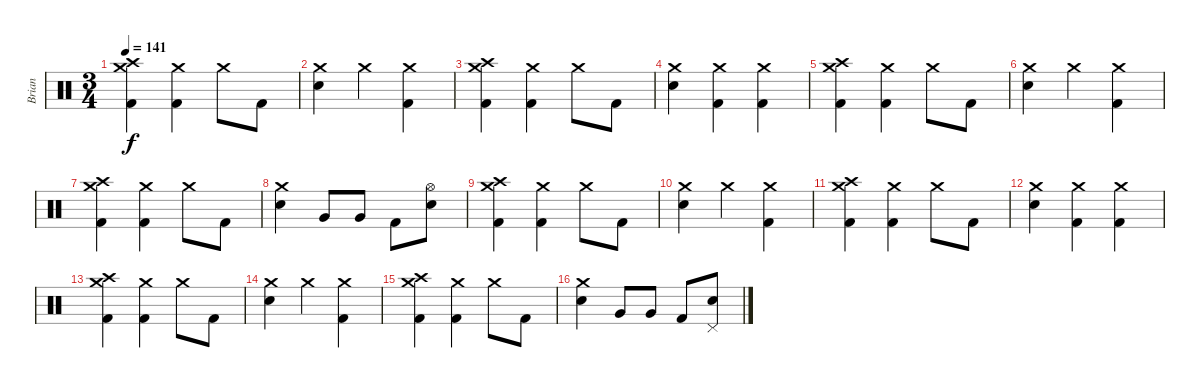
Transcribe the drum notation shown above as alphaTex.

\track ("Brian" "Brian") {instrument percussion}
\staff {score}
\articulation defaults
\ts (3 4)
\tempo 141
\clef neutral
\ks c
("Crash high (hit)" "Crash medium (hit)" "Kick (hit) 2").4{dy f} ("Crash medium (hit)" "Kick (hit) 2").4 "Crash medium (hit)".8 "Kick (hit) 2".8 |
("Crash medium (hit)" "Electric Snare (hit)").4 "Crash medium (hit)".4 ("Crash medium (hit)" "Kick (hit) 2").4 |
("Crash high (hit)" "Crash medium (hit)" "Kick (hit) 2").4 ("Crash medium (hit)" "Kick (hit) 2").4 "Crash medium (hit)".8 "Kick (hit) 2".8 |
("Crash medium (hit)" "Electric Snare (hit)").4 ("Crash medium (hit)" "Kick (hit) 2").4 ("Crash medium (hit)" "Kick (hit) 2").4 |
("Crash high (hit)" "Crash medium (hit)" "Kick (hit) 2").4 ("Crash medium (hit)" "Kick (hit) 2").4 "Crash medium (hit)".8 "Kick (hit) 2".8 |
("Crash medium (hit)" "Electric Snare (hit)").4 "Crash medium (hit)".4 ("Crash medium (hit)" "Kick (hit) 2").4 |
("Crash high (hit)" "Crash medium (hit)" "Kick (hit) 2").4 ("Crash medium (hit)" "Kick (hit) 2").4 "Crash medium (hit)".8 "Kick (hit) 2".8 |
("Crash medium (hit)" "Electric Snare (hit)").4 "Very Low Tom (hit)".8 "Very Low Tom (hit)".8 "Kick (hit) 2".8 ("Hi-Hat (open)" "Electric Snare (hit)").8 |
("Crash high (hit)" "Crash medium (hit)" "Kick (hit) 2").4 ("Crash medium (hit)" "Kick (hit) 2").4 "Crash medium (hit)".8 "Kick (hit) 2".8 |
("Crash medium (hit)" "Electric Snare (hit)").4 "Crash medium (hit)".4 ("Crash medium (hit)" "Kick (hit) 2").4 |
("Crash high (hit)" "Crash medium (hit)" "Kick (hit) 2").4 ("Crash medium (hit)" "Kick (hit) 2").4 "Crash medium (hit)".8 "Kick (hit) 2".8 |
("Crash medium (hit)" "Electric Snare (hit)").4 ("Crash medium (hit)" "Kick (hit) 2").4 ("Crash medium (hit)" "Kick (hit) 2").4 |
("Crash high (hit)" "Crash medium (hit)" "Kick (hit) 2").4 ("Crash medium (hit)" "Kick (hit) 2").4 "Crash medium (hit)".8 "Kick (hit) 2".8 |
("Crash medium (hit)" "Electric Snare (hit)").4 "Crash medium (hit)".4 ("Crash medium (hit)" "Kick (hit) 2").4 |
("Crash high (hit)" "Crash medium (hit)" "Kick (hit) 2").4 ("Crash medium (hit)" "Kick (hit) 2").4 "Crash medium (hit)".8 "Kick (hit) 2".8 |
("Crash medium (hit)" "Electric Snare (hit)").4 "Very Low Tom (hit)".8 "Very Low Tom (hit)".8 "Kick (hit) 2".8 ("Pedal Hi-Hat (hit)" "Electric Snare (hit)").8
